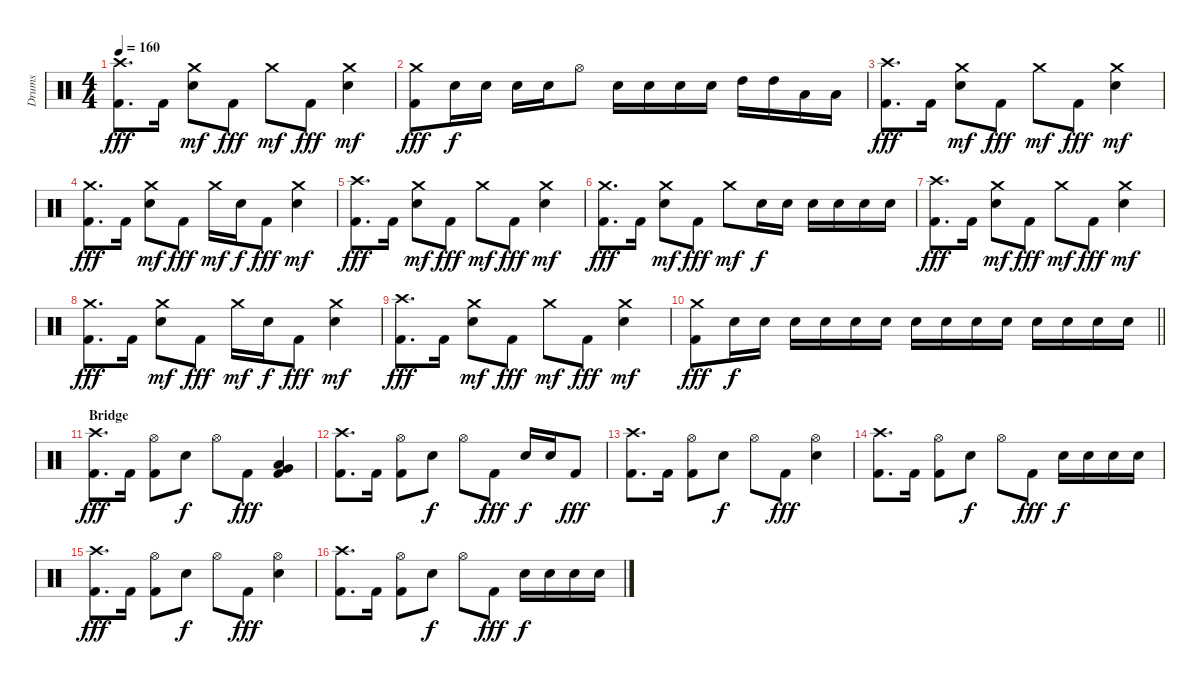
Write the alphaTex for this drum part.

\track ("Drums" "Drums") {instrument percussion}
\staff {score}
\articulation defaults
\ts (4 4)
\tempo 160
\clef neutral
\ks c
("Crash high (hit)" "Kick (hit) 2").8{d dy fff} "Kick (hit) 2".16 ("Crash medium (hit)" "Snare (hit) 2").8{dy mf} "Kick (hit) 2".8{dy fff} "Crash medium (hit)".8{dy mf} "Kick (hit) 2".8{dy fff} ("Crash medium (hit)" "Snare (hit) 2").4{dy mf} |
("Crash medium (hit)" "Kick (hit) 2").8{dy fff} "Snare (hit) 2".16{dy f} "Snare (hit) 2".16 "Snare (hit) 2".16 "Snare (hit) 2".16 "Hi-Hat (open)".8 "Snare (hit) 2".16 "Snare (hit) 2".16 "Snare (hit) 2".16 "Snare (hit) 2".16 "High Tom (hit)".16 "High Tom (hit)".16 "Low Tom (hit)".16 "Low Tom (hit)".16 |
("Crash high (hit)" "Kick (hit) 2").8{d dy fff} "Kick (hit) 2".16 ("Crash medium (hit)" "Snare (hit) 2").8{dy mf} "Kick (hit) 2".8{dy fff} "Crash medium (hit)".8{dy mf} "Kick (hit) 2".8{dy fff} ("Crash medium (hit)" "Snare (hit) 2").4{dy mf} |
("Crash medium (hit)" "Kick (hit) 2").8{d dy fff} "Kick (hit) 2".16 ("Crash medium (hit)" "Snare (hit) 2").8{dy mf} "Kick (hit) 2".8{dy fff} "Crash medium (hit)".16{dy mf} "Snare (hit) 2".16{dy f} "Kick (hit) 2".8{dy fff} ("Crash medium (hit)" "Snare (hit) 2").4{dy mf} |
("Crash high (hit)" "Kick (hit) 2").8{d dy fff} "Kick (hit) 2".16 ("Crash medium (hit)" "Snare (hit) 2").8{dy mf} "Kick (hit) 2".8{dy fff} "Crash medium (hit)".8{dy mf} "Kick (hit) 2".8{dy fff} ("Crash medium (hit)" "Snare (hit) 2").4{dy mf} |
("Crash medium (hit)" "Kick (hit) 2").8{d dy fff} "Kick (hit) 2".16 ("Crash medium (hit)" "Snare (hit) 2").8{dy mf} "Kick (hit) 2".8{dy fff} "Crash medium (hit)".8{dy mf} "Snare (hit) 2".16{dy f} "Snare (hit) 2".16 "Snare (hit) 2".16 "Snare (hit) 2".16 "Snare (hit) 2".16 "Snare (hit) 2".16 |
("Crash high (hit)" "Kick (hit) 2").8{d dy fff} "Kick (hit) 2".16 ("Crash medium (hit)" "Snare (hit) 2").8{dy mf} "Kick (hit) 2".8{dy fff} "Crash medium (hit)".8{dy mf} "Kick (hit) 2".8{dy fff} ("Crash medium (hit)" "Snare (hit) 2").4{dy mf} |
("Crash medium (hit)" "Kick (hit) 2").8{d dy fff} "Kick (hit) 2".16 ("Crash medium (hit)" "Snare (hit) 2").8{dy mf} "Kick (hit) 2".8{dy fff} "Crash medium (hit)".16{dy mf} "Snare (hit) 2".16{dy f} "Kick (hit) 2".8{dy fff} ("Crash medium (hit)" "Snare (hit) 2").4{dy mf} |
("Crash high (hit)" "Kick (hit) 2").8{d dy fff} "Kick (hit) 2".16 ("Crash medium (hit)" "Snare (hit) 2").8{dy mf} "Kick (hit) 2".8{dy fff} "Crash medium (hit)".8{dy mf} "Kick (hit) 2".8{dy fff} ("Crash medium (hit)" "Snare (hit) 2").4{dy mf} |
\barLineRight lightlight
("Crash medium (hit)" "Kick (hit) 2").8{dy fff} "Snare (hit) 2".16{dy f} "Snare (hit) 2".16 "Snare (hit) 2".16 "Snare (hit) 2".16 "Snare (hit) 2".16 "Snare (hit) 2".16 "Snare (hit) 2".16 "Snare (hit) 2".16 "Snare (hit) 2".16 "Snare (hit) 2".16 "Snare (hit) 2".16 "Snare (hit) 2".16 "Snare (hit) 2".16 "Snare (hit) 2".16 |
\section ("" "Bridge")
("Crash high (hit)" "Kick (hit) 2").8{d dy fff} "Kick (hit) 2".16 ("Hi-Hat (open)" "Kick (hit) 2").8 "Snare (hit) 2".8{dy f} "Hi-Hat (open)".8 "Kick (hit) 2".8{dy fff} ("Very Low Tom (hit)" "Low Floor Tom (hit)" "Kick (hit) 2").4 |
("Crash high (hit)" "Kick (hit) 2").8{d} "Kick (hit) 2".16 ("Hi-Hat (open)" "Kick (hit) 2").8 "Snare (hit) 2".8{dy f} "Hi-Hat (open)".8 "Kick (hit) 2".8{dy fff} "Snare (hit) 2".16{dy f} "Snare (hit) 2".16 "Kick (hit) 2".8{dy fff} |
("Crash high (hit)" "Kick (hit) 2").8{d} "Kick (hit) 2".16 ("Hi-Hat (open)" "Kick (hit) 2").8 "Snare (hit) 2".8{dy f} "Hi-Hat (open)".8 "Kick (hit) 2".8{dy fff} ("Hi-Hat (open)" "Snare (hit) 2").4 |
("Crash high (hit)" "Kick (hit) 2").8{d} "Kick (hit) 2".16 ("Hi-Hat (open)" "Kick (hit) 2").8 "Snare (hit) 2".8{dy f} "Hi-Hat (open)".8 "Kick (hit) 2".8{dy fff} "Snare (hit) 2".16{dy f} "Snare (hit) 2".16 "Snare (hit) 2".16 "Snare (hit) 2".16 |
("Crash high (hit)" "Kick (hit) 2").8{d dy fff} "Kick (hit) 2".16 ("Hi-Hat (open)" "Kick (hit) 2").8 "Snare (hit) 2".8{dy f} "Hi-Hat (open)".8 "Kick (hit) 2".8{dy fff} ("Hi-Hat (open)" "Snare (hit) 2").4 |
("Crash high (hit)" "Kick (hit) 2").8{d} "Kick (hit) 2".16 ("Hi-Hat (open)" "Kick (hit) 2").8 "Snare (hit) 2".8{dy f} "Hi-Hat (open)".8 "Kick (hit) 2".8{dy fff} "Snare (hit) 2".16{dy f} "Snare (hit) 2".16 "Snare (hit) 2".16 "Snare (hit) 2".16
